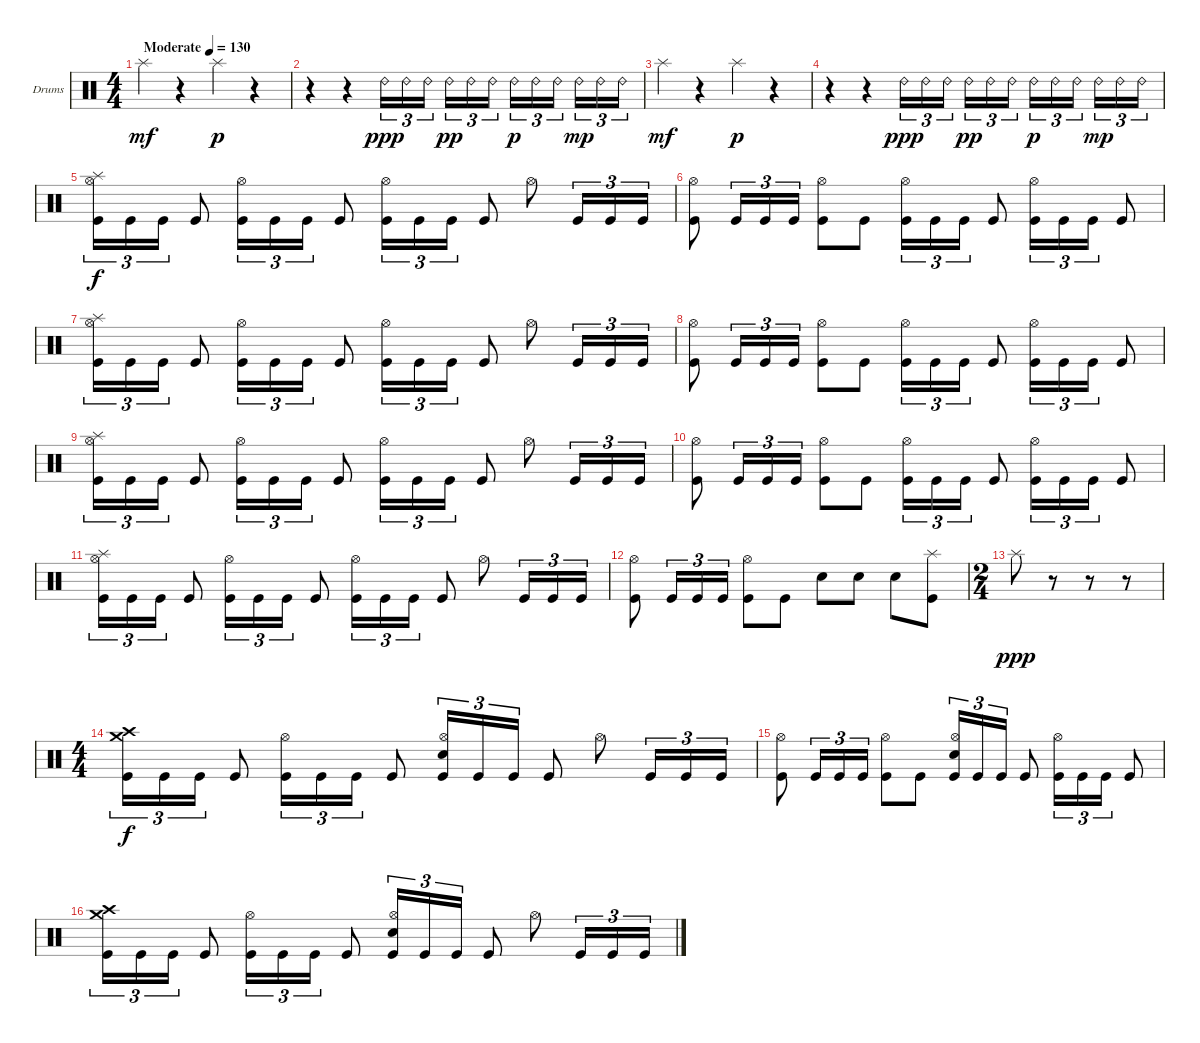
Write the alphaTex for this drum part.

\bracketExtendMode groupsimilarinstruments
\firstSystemTrackNameOrientation horizontal
\otherSystemsTrackNameOrientation horizontal
\track ("Drumkit" "Drums") {instrument percussion}
\staff {score}
\articulation defaults
\ts (4 4)
\beaming (8 2 2 2 2)
\tempo (130 "Moderate")
\clef neutral
\scale
0.474178
\ks c "Splash (hit)".4{dy mf}
r.4 "Splash (hit)".4{dy p} r.4 |
\scale
0.262911 r.4 r.4 "Ride (bell) 2".16{tu (3 2) dy ppp} "Ride (bell) 2".16{tu (3 2)} "Ride (bell) 2".16{tu (3 2)} "Ride (bell) 2".16{tu (3 2) dy pp} "Ride (bell) 2".16{tu (3 2)} "Ride (bell) 2".16{tu (3 2)} "Ride (bell) 2".16{tu (3 2) dy p} "Ride (bell) 2".16{tu (3 2)} "Ride (bell) 2".16{tu (3 2)} "Ride (bell) 2".16{tu (3 2) dy mp} "Ride (bell) 2".16{tu (3 2)} "Ride (bell) 2".16{tu (3 2)} |
\scale
0.262911 "Splash (hit)".4{dy mf} r.4 "Splash (hit)".4{dy p} r.4 |
\scale
0.333333 r.4 r.4 "Ride (bell) 2".16{tu (3 2) dy ppp} "Ride (bell) 2".16{tu (3 2)} "Ride (bell) 2".16{tu (3 2)} "Ride (bell) 2".16{tu (3 2) dy pp} "Ride (bell) 2".16{tu (3 2)} "Ride (bell) 2".16{tu (3 2)} "Ride (bell) 2".16{tu (3 2) dy p} "Ride (bell) 2".16{tu (3 2)} "Ride (bell) 2".16{tu (3 2)} "Ride (bell) 2".16{tu (3 2) dy mp} "Ride (bell) 2".16{tu (3 2)} "Ride (bell) 2".16{tu (3 2)} |
\scale
0.333333 ("Kick (hit)" "Hi-Hat (open)" "Splash (hit)").16{tu (3 2) dy f} "Kick (hit)".16{tu (3 2)} "Kick (hit)".16{tu (3 2)} "Kick (hit)".8 ("Kick (hit)" "Hi-Hat (open)").16{tu (3 2)} "Kick (hit)".16{tu (3 2)} "Kick (hit)".16{tu (3 2)} "Kick (hit)".8 ("Kick (hit)" "Hi-Hat (open)").16{tu (3 2)} "Kick (hit)".16{tu (3 2)} "Kick (hit)".16{tu (3 2)} "Kick (hit)".8 "Hi-Hat (open)".8 "Kick (hit)".16{tu (3 2)} "Kick (hit)".16{tu (3 2)} "Kick (hit)".16{tu (3 2)} |
\scale
0.333333 ("Kick (hit)" "Hi-Hat (open)").8 "Kick (hit)".16{tu (3 2)} "Kick (hit)".16{tu (3 2)} "Kick (hit)".16{tu (3 2)} ("Kick (hit)" "Hi-Hat (open)").8 "Kick (hit)".8 ("Hi-Hat (open)" "Kick (hit)").16{tu (3 2)} "Kick (hit)".16{tu (3 2)} "Kick (hit)".16{tu (3 2)} "Kick (hit)".8 ("Kick (hit)" "Hi-Hat (open)").16{tu (3 2)} "Kick (hit)".16{tu (3 2)} "Kick (hit)".16{tu (3 2)} "Kick (hit)".8 |
\scale
0.333333 ("Kick (hit)" "Hi-Hat (open)" "Splash (hit)").16{tu (3 2)} "Kick (hit)".16{tu (3 2)} "Kick (hit)".16{tu (3 2)} "Kick (hit)".8 ("Kick (hit)" "Hi-Hat (open)").16{tu (3 2)} "Kick (hit)".16{tu (3 2)} "Kick (hit)".16{tu (3 2)} "Kick (hit)".8 ("Kick (hit)" "Hi-Hat (open)").16{tu (3 2)} "Kick (hit)".16{tu (3 2)} "Kick (hit)".16{tu (3 2)} "Kick (hit)".8 "Hi-Hat (open)".8 "Kick (hit)".16{tu (3 2)} "Kick (hit)".16{tu (3 2)} "Kick (hit)".16{tu (3 2)} |
\scale
0.333333 ("Kick (hit)" "Hi-Hat (open)").8 "Kick (hit)".16{tu (3 2)} "Kick (hit)".16{tu (3 2)} "Kick (hit)".16{tu (3 2)} ("Kick (hit)" "Hi-Hat (open)").8 "Kick (hit)".8 ("Hi-Hat (open)" "Kick (hit)").16{tu (3 2)} "Kick (hit)".16{tu (3 2)} "Kick (hit)".16{tu (3 2)} "Kick (hit)".8 ("Kick (hit)" "Hi-Hat (open)").16{tu (3 2)} "Kick (hit)".16{tu (3 2)} "Kick (hit)".16{tu (3 2)} "Kick (hit)".8 |
\scale
0.333333 ("Kick (hit)" "Hi-Hat (open)" "Splash (hit)").16{tu (3 2)} "Kick (hit)".16{tu (3 2)} "Kick (hit)".16{tu (3 2)} "Kick (hit)".8 ("Kick (hit)" "Hi-Hat (open)").16{tu (3 2)} "Kick (hit)".16{tu (3 2)} "Kick (hit)".16{tu (3 2)} "Kick (hit)".8 ("Kick (hit)" "Hi-Hat (open)").16{tu (3 2)} "Kick (hit)".16{tu (3 2)} "Kick (hit)".16{tu (3 2)} "Kick (hit)".8 "Hi-Hat (open)".8 "Kick (hit)".16{tu (3 2)} "Kick (hit)".16{tu (3 2)} "Kick (hit)".16{tu (3 2)} |
\scale
0.333333 ("Kick (hit)" "Hi-Hat (open)").8 "Kick (hit)".16{tu (3 2)} "Kick (hit)".16{tu (3 2)} "Kick (hit)".16{tu (3 2)} ("Kick (hit)" "Hi-Hat (open)").8 "Kick (hit)".8 ("Hi-Hat (open)" "Kick (hit)").16{tu (3 2)} "Kick (hit)".16{tu (3 2)} "Kick (hit)".16{tu (3 2)} "Kick (hit)".8 ("Kick (hit)" "Hi-Hat (open)").16{tu (3 2)} "Kick (hit)".16{tu (3 2)} "Kick (hit)".16{tu (3 2)} "Kick (hit)".8 |
\scale
0.333333 ("Kick (hit)" "Hi-Hat (open)" "Splash (hit)").16{tu (3 2)} "Kick (hit)".16{tu (3 2)} "Kick (hit)".16{tu (3 2)} "Kick (hit)".8 ("Kick (hit)" "Hi-Hat (open)").16{tu (3 2)} "Kick (hit)".16{tu (3 2)} "Kick (hit)".16{tu (3 2)} "Kick (hit)".8 ("Kick (hit)" "Hi-Hat (open)").16{tu (3 2)} "Kick (hit)".16{tu (3 2)} "Kick (hit)".16{tu (3 2)} "Kick (hit)".8 "Hi-Hat (open)".8 "Kick (hit)".16{tu (3 2)} "Kick (hit)".16{tu (3 2)} "Kick (hit)".16{tu (3 2)} |
\scale
0.333333 ("Kick (hit)" "Hi-Hat (open)").8 "Kick (hit)".16{tu (3 2)} "Kick (hit)".16{tu (3 2)} "Kick (hit)".16{tu (3 2)} ("Kick (hit)" "Hi-Hat (open)").8 "Kick (hit)".8 "Snare (hit) 2".8 "Snare (hit) 2".8 "Snare (hit) 2".8 ("Kick (hit)" "Splash (hit)").8 |
\ts (2 4)
"Splash (hit)".8{dy ppp} r.8 r.8 r.8 |
\ts (4 4)
\scale
0.333333 ("Kick (hit)" "Crash high (hit)" "Crash medium (hit)").16{tu (3 2) dy f} "Kick (hit)".16{tu (3 2)} "Kick (hit)".16{tu (3 2)} "Kick (hit)".8 ("Kick (hit)" "Hi-Hat (open)").16{tu (3 2)} "Kick (hit)".16{tu (3 2)} "Kick (hit)".16{tu (3 2)} "Kick (hit)".8 ("Kick (hit)" "Hi-Hat (open)" "Snare (hit) 2").16{tu (3 2)} "Kick (hit)".16{tu (3 2)} "Kick (hit)".16{tu (3 2)} "Kick (hit)".8 "Hi-Hat (open)".8 "Kick (hit)".16{tu (3 2)} "Kick (hit)".16{tu (3 2)} "Kick (hit)".16{tu (3 2)} |
\scale
0.333333 ("Kick (hit)" "Hi-Hat (open)").8 "Kick (hit)".16{tu (3 2)} "Kick (hit)".16{tu (3 2)} "Kick (hit)".16{tu (3 2)} ("Kick (hit)" "Hi-Hat (open)").8 "Kick (hit)".8 ("Hi-Hat (open)" "Kick (hit)" "Snare (hit) 2").16{tu (3 2)} "Kick (hit)".16{tu (3 2)} "Kick (hit)".16{tu (3 2)} "Kick (hit)".8 ("Kick (hit)" "Hi-Hat (open)").16{tu (3 2)} "Kick (hit)".16{tu (3 2)} "Kick (hit)".16{tu (3 2)} "Kick (hit)".8 |
\scale
0.333333 ("Kick (hit)" "Crash high (hit)" "Crash medium (hit)").16{tu (3 2)} "Kick (hit)".16{tu (3 2)} "Kick (hit)".16{tu (3 2)} "Kick (hit)".8 ("Kick (hit)" "Hi-Hat (open)").16{tu (3 2)} "Kick (hit)".16{tu (3 2)} "Kick (hit)".16{tu (3 2)} "Kick (hit)".8 ("Kick (hit)" "Hi-Hat (open)" "Snare (hit) 2").16{tu (3 2)} "Kick (hit)".16{tu (3 2)} "Kick (hit)".16{tu (3 2)} "Kick (hit)".8 "Hi-Hat (open)".8 "Kick (hit)".16{tu (3 2)} "Kick (hit)".16{tu (3 2)} "Kick (hit)".16{tu (3 2)}
